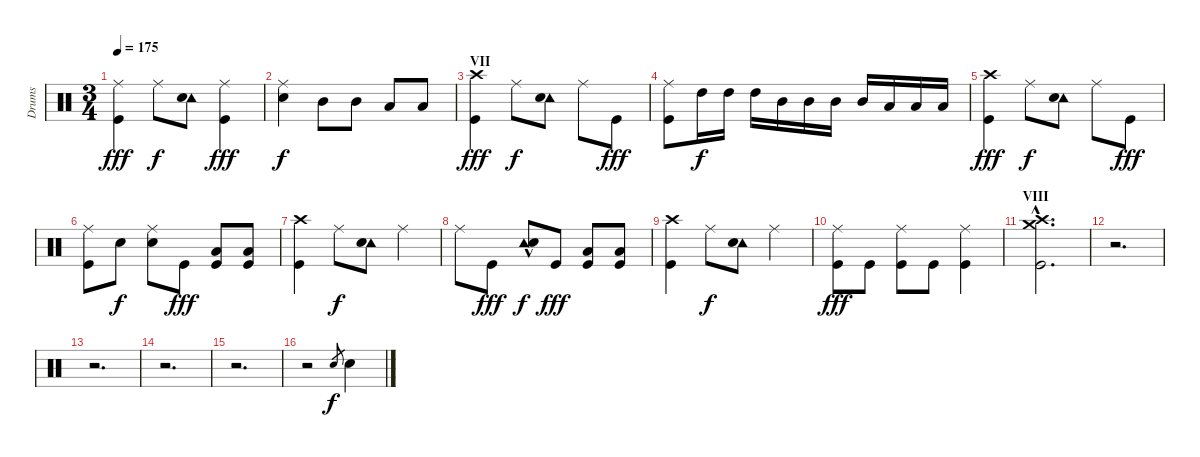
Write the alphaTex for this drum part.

\track ("Drums" "Drums") {instrument percussion}
\staff {score}
\articulation defaults
\ts (3 4)
\tempo 175
\clef neutral
\ks c
("Ride (middle)" "Kick (hit)").4{dy fff} "Ride (middle)".8{dy f} ("Tambourine (hit)" "Snare (hit) 2").8 ("Ride (middle)" "Kick (hit)").4{dy fff} |
("Ride (middle)" "Snare (hit) 2").4{dy f} "Mid Tom (hit)".8 "Mid Tom (hit)".8 "Low Tom (hit)".8 "Low Tom (hit)".8 |
\section ("" "VII")
("Crash high (hit)" "Kick (hit)").4{dy fff} "Ride (middle)".8{dy f} ("Tambourine (hit)" "Snare (hit) 2").8 "Ride (middle)".8 "Kick (hit)".8{dy fff} |
("Ride (middle)" "Kick (hit)").8 "High Tom (hit)".16{dy f} "High Tom (hit)".16 "High Tom (hit)".16 "Mid Tom (hit)".16 "Mid Tom (hit)".16 "Mid Tom (hit)".16 "Mid Tom (hit)".16 "Low Tom (hit)".16 "Low Tom (hit)".16 "Low Tom (hit)".16 |
("Crash high (hit)" "Kick (hit)").4{dy fff} "Ride (middle)".8{dy f} ("Tambourine (hit)" "Snare (hit) 2").8 "Ride (middle)".8 "Kick (hit)".8{dy fff} |
("Ride (middle)" "Kick (hit)").8 "Snare (hit) 2".8{dy f} ("Ride (middle)" "Snare (hit) 2").8 "Kick (hit)".8{dy fff} ("Low Tom (hit)" "Kick (hit)").8 ("Low Tom (hit)" "Kick (hit)").8 |
("Crash high (hit)" "Kick (hit)").4 "Ride (middle)".8{dy f} ("Tambourine (hit)" "Snare (hit) 2").8 "Ride (middle)".4 |
"Ride (middle)".8 "Kick (hit)".8{dy fff} ("Tambourine (hit)"{hac} "Snare (hit) 2").8{dy f} "Kick (hit)".8{dy fff} ("Low Tom (hit)" "Kick (hit)").8 ("Low Tom (hit)" "Kick (hit)").8 |
("Crash high (hit)" "Kick (hit)").4 "Ride (middle)".8{dy f} ("Tambourine (hit)" "Snare (hit) 2").8 "Ride (middle)".4 |
("Ride (middle)" "Kick (hit)").8{dy fff} "Kick (hit)".8 ("Ride (middle)" "Kick (hit)").8 "Kick (hit)".8 ("Ride (middle)" "Kick (hit)").4 |
\section ("" "VIII")
("Crash high (hit)"{hac} "Crash medium (hit)"{hac} "Kick (hit)"{hac}).2{d} |
r.2{d} |
r.2{d} |
r.2{d} |
r.2{d} |
r.2 "Snare (hit) 2".8{gr dy f} "Snare (hit) 2".4
